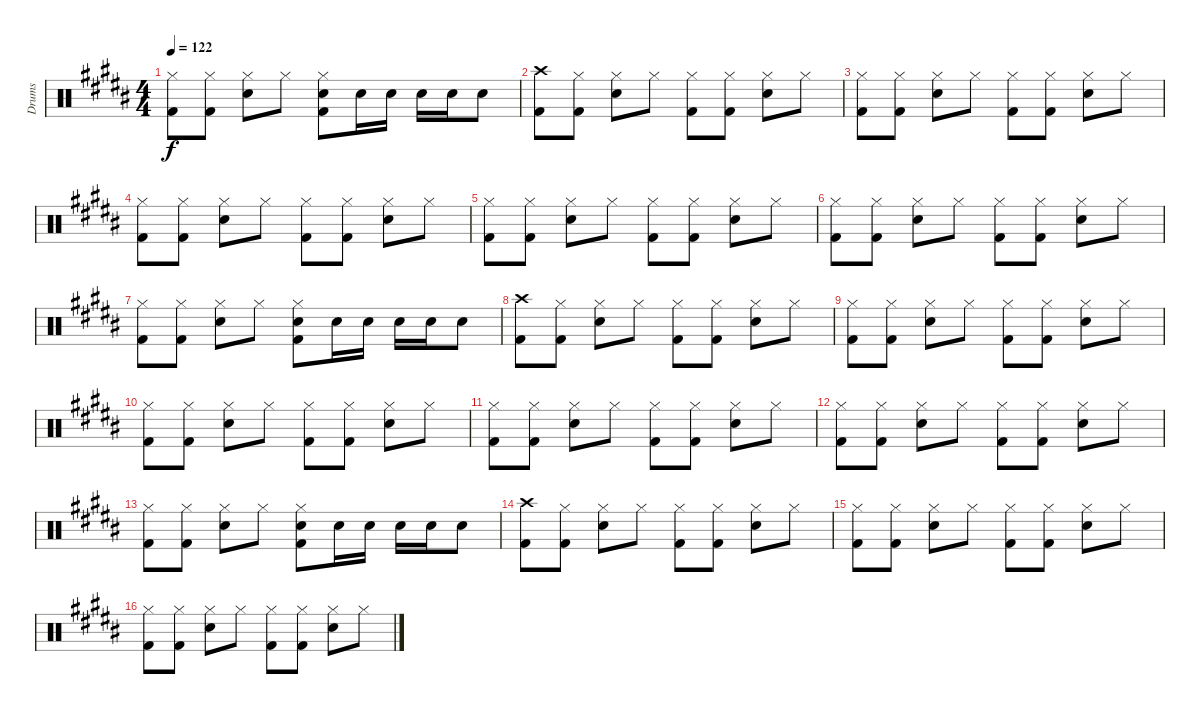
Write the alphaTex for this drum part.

\track ("Drums" "Drums") {instrument percussion}
\staff {score}
\articulation defaults
\ts (4 4)
\tempo 122
\clef neutral
\ks b
("Hi-Hat (closed)" "Kick (hit) 2").8{dy f} ("Hi-Hat (closed)" "Kick (hit) 2").8 ("Hi-Hat (closed)" "Snare (hit) 2").8 "Hi-Hat (closed)".8 ("Hi-Hat (closed)" "Snare (hit) 2" "Kick (hit) 2").8 "Snare (hit) 2".16 "Snare (hit) 2".16 "Snare (hit) 2".16 "Snare (hit) 2".16 "Snare (hit) 2".8 |
("Crash high (hit)" "Kick (hit) 2").8 ("Hi-Hat (closed)" "Kick (hit) 2").8 ("Hi-Hat (closed)" "Snare (hit) 2").8 "Hi-Hat (closed)".8 ("Hi-Hat (closed)" "Kick (hit) 2").8 ("Hi-Hat (closed)" "Kick (hit) 2").8 ("Hi-Hat (closed)" "Snare (hit) 2").8 "Hi-Hat (closed)".8 |
("Hi-Hat (closed)" "Kick (hit) 2").8 ("Hi-Hat (closed)" "Kick (hit) 2").8 ("Hi-Hat (closed)" "Snare (hit) 2").8 "Hi-Hat (closed)".8 ("Hi-Hat (closed)" "Kick (hit) 2").8 ("Hi-Hat (closed)" "Kick (hit) 2").8 ("Hi-Hat (closed)" "Snare (hit) 2").8 "Hi-Hat (closed)".8 |
("Hi-Hat (closed)" "Kick (hit) 2").8 ("Hi-Hat (closed)" "Kick (hit) 2").8 ("Hi-Hat (closed)" "Snare (hit) 2").8 "Hi-Hat (closed)".8 ("Hi-Hat (closed)" "Kick (hit) 2").8 ("Hi-Hat (closed)" "Kick (hit) 2").8 ("Hi-Hat (closed)" "Snare (hit) 2").8 "Hi-Hat (closed)".8 |
("Hi-Hat (closed)" "Kick (hit) 2").8 ("Hi-Hat (closed)" "Kick (hit) 2").8 ("Hi-Hat (closed)" "Snare (hit) 2").8 "Hi-Hat (closed)".8 ("Hi-Hat (closed)" "Kick (hit) 2").8 ("Hi-Hat (closed)" "Kick (hit) 2").8 ("Hi-Hat (closed)" "Snare (hit) 2").8 "Hi-Hat (closed)".8 |
("Hi-Hat (closed)" "Kick (hit) 2").8 ("Hi-Hat (closed)" "Kick (hit) 2").8 ("Hi-Hat (closed)" "Snare (hit) 2").8 "Hi-Hat (closed)".8 ("Hi-Hat (closed)" "Kick (hit) 2").8 ("Hi-Hat (closed)" "Kick (hit) 2").8 ("Hi-Hat (closed)" "Snare (hit) 2").8 "Hi-Hat (closed)".8 |
("Hi-Hat (closed)" "Kick (hit) 2").8 ("Hi-Hat (closed)" "Kick (hit) 2").8 ("Hi-Hat (closed)" "Snare (hit) 2").8 "Hi-Hat (closed)".8 ("Hi-Hat (closed)" "Snare (hit) 2" "Kick (hit) 2").8 "Snare (hit) 2".16 "Snare (hit) 2".16 "Snare (hit) 2".16 "Snare (hit) 2".16 "Snare (hit) 2".8 |
("Crash high (hit)" "Kick (hit) 2").8 ("Hi-Hat (closed)" "Kick (hit) 2").8 ("Hi-Hat (closed)" "Snare (hit) 2").8 "Hi-Hat (closed)".8 ("Hi-Hat (closed)" "Kick (hit) 2").8 ("Hi-Hat (closed)" "Kick (hit) 2").8 ("Hi-Hat (closed)" "Snare (hit) 2").8 "Hi-Hat (closed)".8 |
("Hi-Hat (closed)" "Kick (hit) 2").8 ("Hi-Hat (closed)" "Kick (hit) 2").8 ("Hi-Hat (closed)" "Snare (hit) 2").8 "Hi-Hat (closed)".8 ("Hi-Hat (closed)" "Kick (hit) 2").8 ("Hi-Hat (closed)" "Kick (hit) 2").8 ("Hi-Hat (closed)" "Snare (hit) 2").8 "Hi-Hat (closed)".8 |
("Hi-Hat (closed)" "Kick (hit) 2").8 ("Hi-Hat (closed)" "Kick (hit) 2").8 ("Hi-Hat (closed)" "Snare (hit) 2").8 "Hi-Hat (closed)".8 ("Hi-Hat (closed)" "Kick (hit) 2").8 ("Hi-Hat (closed)" "Kick (hit) 2").8 ("Hi-Hat (closed)" "Snare (hit) 2").8 "Hi-Hat (closed)".8 |
("Hi-Hat (closed)" "Kick (hit) 2").8 ("Hi-Hat (closed)" "Kick (hit) 2").8 ("Hi-Hat (closed)" "Snare (hit) 2").8 "Hi-Hat (closed)".8 ("Hi-Hat (closed)" "Kick (hit) 2").8 ("Hi-Hat (closed)" "Kick (hit) 2").8 ("Hi-Hat (closed)" "Snare (hit) 2").8 "Hi-Hat (closed)".8 |
("Hi-Hat (closed)" "Kick (hit) 2").8 ("Hi-Hat (closed)" "Kick (hit) 2").8 ("Hi-Hat (closed)" "Snare (hit) 2").8 "Hi-Hat (closed)".8 ("Hi-Hat (closed)" "Kick (hit) 2").8 ("Hi-Hat (closed)" "Kick (hit) 2").8 ("Hi-Hat (closed)" "Snare (hit) 2").8 "Hi-Hat (closed)".8 |
("Hi-Hat (closed)" "Kick (hit) 2").8 ("Hi-Hat (closed)" "Kick (hit) 2").8 ("Hi-Hat (closed)" "Snare (hit) 2").8 "Hi-Hat (closed)".8 ("Hi-Hat (closed)" "Snare (hit) 2" "Kick (hit) 2").8 "Snare (hit) 2".16 "Snare (hit) 2".16 "Snare (hit) 2".16 "Snare (hit) 2".16 "Snare (hit) 2".8 |
("Crash high (hit)" "Kick (hit) 2").8 ("Hi-Hat (closed)" "Kick (hit) 2").8 ("Hi-Hat (closed)" "Snare (hit) 2").8 "Hi-Hat (closed)".8 ("Hi-Hat (closed)" "Kick (hit) 2").8 ("Hi-Hat (closed)" "Kick (hit) 2").8 ("Hi-Hat (closed)" "Snare (hit) 2").8 "Hi-Hat (closed)".8 |
("Hi-Hat (closed)" "Kick (hit) 2").8 ("Hi-Hat (closed)" "Kick (hit) 2").8 ("Hi-Hat (closed)" "Snare (hit) 2").8 "Hi-Hat (closed)".8 ("Hi-Hat (closed)" "Kick (hit) 2").8 ("Hi-Hat (closed)" "Kick (hit) 2").8 ("Hi-Hat (closed)" "Snare (hit) 2").8 "Hi-Hat (closed)".8 |
("Hi-Hat (closed)" "Kick (hit) 2").8 ("Hi-Hat (closed)" "Kick (hit) 2").8 ("Hi-Hat (closed)" "Snare (hit) 2").8 "Hi-Hat (closed)".8 ("Hi-Hat (closed)" "Kick (hit) 2").8 ("Hi-Hat (closed)" "Kick (hit) 2").8 ("Hi-Hat (closed)" "Snare (hit) 2").8 "Hi-Hat (closed)".8
